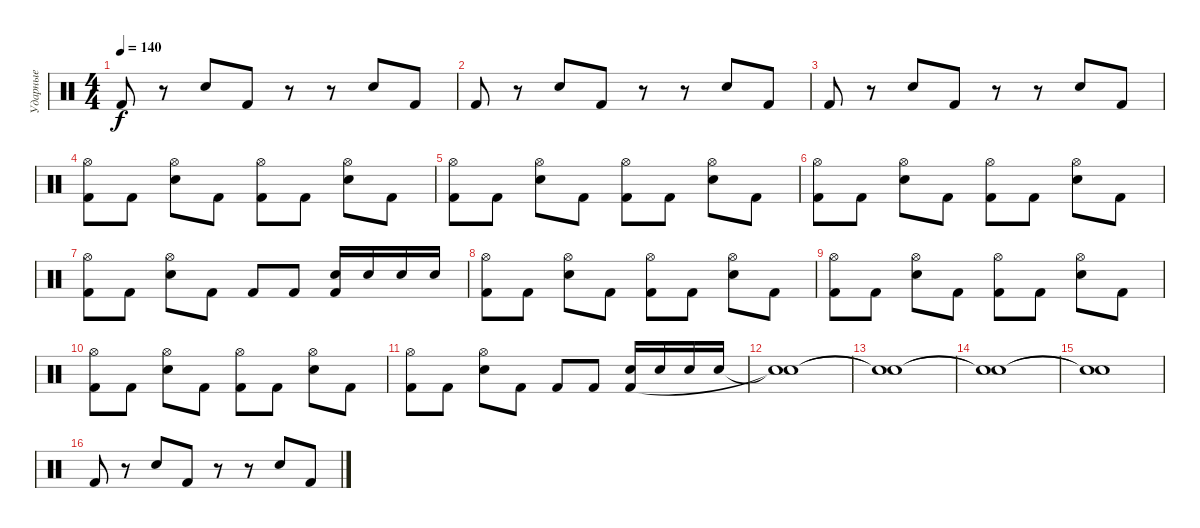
\track ("Ударные" "Ударные") {instrument percussion}
\staff {score}
\articulation defaults
\ts (4 4)
\tempo 140
\clef neutral
\ks c "Kick (hit) 2".8{dy f}
r.8 "Electric Snare (hit)".8 "Kick (hit) 2".8 r.8 r.8 "Electric Snare (hit)".8 "Kick (hit) 2".8 |
"Kick (hit) 2".8 r.8 "Electric Snare (hit)".8 "Kick (hit) 2".8 r.8 r.8 "Electric Snare (hit)".8 "Kick (hit) 2".8 |
"Kick (hit) 2".8 r.8 "Electric Snare (hit)".8 "Kick (hit) 2".8 r.8 r.8 "Electric Snare (hit)".8 "Kick (hit) 2".8 |
("Kick (hit) 2" "Hi-Hat (open)").8 "Kick (hit) 2".8 ("Electric Snare (hit)" "Hi-Hat (open)").8 "Kick (hit) 2".8 ("Kick (hit) 2" "Hi-Hat (open)").8 "Kick (hit) 2".8 ("Electric Snare (hit)" "Hi-Hat (open)").8 "Kick (hit) 2".8 |
("Kick (hit) 2" "Hi-Hat (open)").8 "Kick (hit) 2".8 ("Electric Snare (hit)" "Hi-Hat (open)").8 "Kick (hit) 2".8 ("Kick (hit) 2" "Hi-Hat (open)").8 "Kick (hit) 2".8 ("Electric Snare (hit)" "Hi-Hat (open)").8 "Kick (hit) 2".8 |
("Kick (hit) 2" "Hi-Hat (open)").8 "Kick (hit) 2".8 ("Electric Snare (hit)" "Hi-Hat (open)").8 "Kick (hit) 2".8 ("Kick (hit) 2" "Hi-Hat (open)").8 "Kick (hit) 2".8 ("Electric Snare (hit)" "Hi-Hat (open)").8 "Kick (hit) 2".8 |
("Kick (hit) 2" "Hi-Hat (open)").8 "Kick (hit) 2".8 ("Electric Snare (hit)" "Hi-Hat (open)").8 "Kick (hit) 2".8 "Kick (hit) 2".8 "Kick (hit) 2".8 ("Electric Snare (hit)" "Kick (hit) 2").16 "Electric Snare (hit)".16 "Electric Snare (hit)".16 "Electric Snare (hit)".16 |
("Kick (hit) 2" "Hi-Hat (open)").8 "Kick (hit) 2".8 ("Electric Snare (hit)" "Hi-Hat (open)").8 "Kick (hit) 2".8 ("Kick (hit) 2" "Hi-Hat (open)").8 "Kick (hit) 2".8 ("Electric Snare (hit)" "Hi-Hat (open)").8 "Kick (hit) 2".8 |
("Kick (hit) 2" "Hi-Hat (open)").8 "Kick (hit) 2".8 ("Electric Snare (hit)" "Hi-Hat (open)").8 "Kick (hit) 2".8 ("Kick (hit) 2" "Hi-Hat (open)").8 "Kick (hit) 2".8 ("Electric Snare (hit)" "Hi-Hat (open)").8 "Kick (hit) 2".8 |
("Kick (hit) 2" "Hi-Hat (open)").8 "Kick (hit) 2".8 ("Electric Snare (hit)" "Hi-Hat (open)").8 "Kick (hit) 2".8 ("Kick (hit) 2" "Hi-Hat (open)").8 "Kick (hit) 2".8 ("Electric Snare (hit)" "Hi-Hat (open)").8 "Kick (hit) 2".8 |
("Kick (hit) 2" "Hi-Hat (open)").8 "Kick (hit) 2".8 ("Electric Snare (hit)" "Hi-Hat (open)").8 "Kick (hit) 2".8 "Kick (hit) 2".8 "Kick (hit) 2".8 ("Electric Snare (hit)" "Kick (hit) 2").16 "Electric Snare (hit)".16 "Electric Snare (hit)".16 "Electric Snare (hit)".16 |
("Snare (hit)"{t} "Snare (hit)"{t}).1 |
("Snare (hit)"{t} "Snare (hit)"{t}).1 |
("Snare (hit)"{t} "Snare (hit)"{t}).1 |
("Snare (hit)"{t} "Snare (hit)"{t}).1 |
"Kick (hit) 2".8 r.8 "Electric Snare (hit)".8 "Kick (hit) 2".8 r.8 r.8 "Electric Snare (hit)".8 "Kick (hit) 2".8
